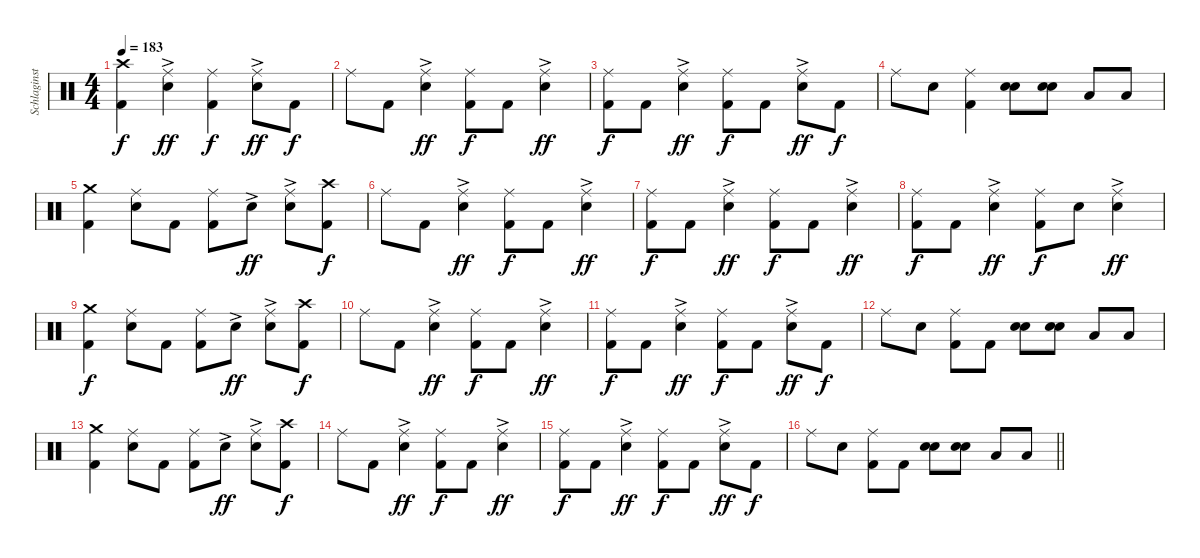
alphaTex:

\track ("Schlaginstrumente - Auswahl" "Schlaginst") {instrument percussion}
\staff {score}
\articulation defaults
\ts (4 4)
\tempo 183
\clef neutral
\ks c
("Crash high (hit)" "Kick (hit) 2").4{dy f} ("Ride (middle)"{ac} "Snare (hit) 2").4{dy ff} ("Ride (middle)" "Kick (hit) 2").4{dy f} ("Ride (middle)"{ac} "Snare (hit) 2").8{dy ff} "Kick (hit) 2".8{dy f} |
"Ride (middle)".8 "Kick (hit) 2".8 ("Ride (middle)"{ac} "Snare (hit) 2").4{dy ff} ("Ride (middle)" "Kick (hit) 2").8{dy f} "Kick (hit) 2".8 ("Ride (middle)"{ac} "Snare (hit) 2").4{dy ff} |
("Ride (middle)" "Kick (hit) 2").8{dy f} "Kick (hit) 2".8 ("Ride (middle)"{ac} "Snare (hit) 2").4{dy ff} ("Ride (middle)" "Kick (hit) 2").8{dy f} "Kick (hit) 2".8 ("Ride (middle)"{ac} "Snare (hit) 2").8{dy ff} "Kick (hit) 2".8{dy f} |
"Ride (middle)".8 "Snare (hit) 2".8 ("Ride (middle)" "Kick (hit) 2").4 ("Snare (hit) 2" "Snare (hit) 2").8{bd 120} ("Snare (hit) 2" "Snare (hit) 2").8{bd 120} "Low Tom (hit)".8 "Low Tom (hit)".8 |
("Crash medium (hit)" "Kick (hit) 2").4 ("Ride (middle)" "Snare (hit) 2").8 "Kick (hit) 2".8 ("Ride (middle)" "Kick (hit) 2").8 "Snare (hit) 2"{ac}.8{dy ff} ("Ride (middle)"{ac} "Snare (hit) 2"{ac}).8 ("Crash high (hit)" "Kick (hit) 2").8{dy f} |
"Ride (middle)".8 "Kick (hit) 2".8 ("Ride (middle)"{ac} "Snare (hit) 2").4{dy ff} ("Ride (middle)" "Kick (hit) 2").8{dy f} "Kick (hit) 2".8 ("Ride (middle)"{ac} "Snare (hit) 2").4{dy ff} |
("Ride (middle)" "Kick (hit) 2").8{dy f} "Kick (hit) 2".8 ("Ride (middle)"{ac} "Snare (hit) 2").4{dy ff} ("Ride (middle)" "Kick (hit) 2").8{dy f} "Kick (hit) 2".8 ("Ride (middle)"{ac} "Snare (hit) 2").4{dy ff} |
("Ride (middle)" "Kick (hit) 2").8{dy f} "Kick (hit) 2".8 ("Ride (middle)"{ac} "Snare (hit) 2").4{dy ff} ("Ride (middle)" "Kick (hit) 2").8{dy f} "Snare (hit) 2".8 ("Ride (middle)"{ac} "Snare (hit) 2").4{dy ff} |
("Crash medium (hit)" "Kick (hit) 2").4{dy f} ("Ride (middle)" "Snare (hit) 2").8 "Kick (hit) 2".8 ("Ride (middle)" "Kick (hit) 2").8 "Snare (hit) 2"{ac}.8{dy ff} ("Ride (middle)"{ac} "Snare (hit) 2"{ac}).8 ("Crash high (hit)" "Kick (hit) 2").8{dy f} |
"Ride (middle)".8 "Kick (hit) 2".8 ("Ride (middle)"{ac} "Snare (hit) 2").4{dy ff} ("Ride (middle)" "Kick (hit) 2").8{dy f} "Kick (hit) 2".8 ("Ride (middle)"{ac} "Snare (hit) 2").4{dy ff} |
("Ride (middle)" "Kick (hit) 2").8{dy f} "Kick (hit) 2".8 ("Ride (middle)"{ac} "Snare (hit) 2").4{dy ff} ("Ride (middle)" "Kick (hit) 2").8{dy f} "Kick (hit) 2".8 ("Ride (middle)"{ac} "Snare (hit) 2").8{dy ff} "Kick (hit) 2".8{dy f} |
"Ride (middle)".8 "Snare (hit) 2".8 ("Ride (middle)" "Kick (hit) 2").8 "Kick (hit) 2".8 ("Snare (hit) 2" "Snare (hit) 2").8{bd 120} ("Snare (hit) 2" "Snare (hit) 2").8{bd 120} "Low Tom (hit)".8 "Low Tom (hit)".8 |
("Crash medium (hit)" "Kick (hit) 2").4 ("Ride (middle)" "Snare (hit) 2").8 "Kick (hit) 2".8 ("Ride (middle)" "Kick (hit) 2").8 "Snare (hit) 2"{ac}.8{dy ff} ("Ride (middle)"{ac} "Snare (hit) 2"{ac}).8 ("Crash high (hit)" "Kick (hit) 2").8{dy f} |
"Ride (middle)".8 "Kick (hit) 2".8 ("Ride (middle)"{ac} "Snare (hit) 2").4{dy ff} ("Ride (middle)" "Kick (hit) 2").8{dy f} "Kick (hit) 2".8 ("Ride (middle)"{ac} "Snare (hit) 2").4{dy ff} |
("Ride (middle)" "Kick (hit) 2").8{dy f} "Kick (hit) 2".8 ("Ride (middle)"{ac} "Snare (hit) 2").4{dy ff} ("Ride (middle)" "Kick (hit) 2").8{dy f} "Kick (hit) 2".8 ("Ride (middle)"{ac} "Snare (hit) 2").8{dy ff} "Kick (hit) 2".8{dy f} |
\barLineRight lightlight "Ride (middle)".8 "Snare (hit) 2".8
("Ride (middle)" "Kick (hit) 2").8 "Kick (hit) 2".8 ("Snare (hit) 2" "Snare (hit) 2").8{bd 120} ("Snare (hit) 2" "Snare (hit) 2").8{bd 120} "Low Tom (hit)".8 "Low Tom (hit)".8
